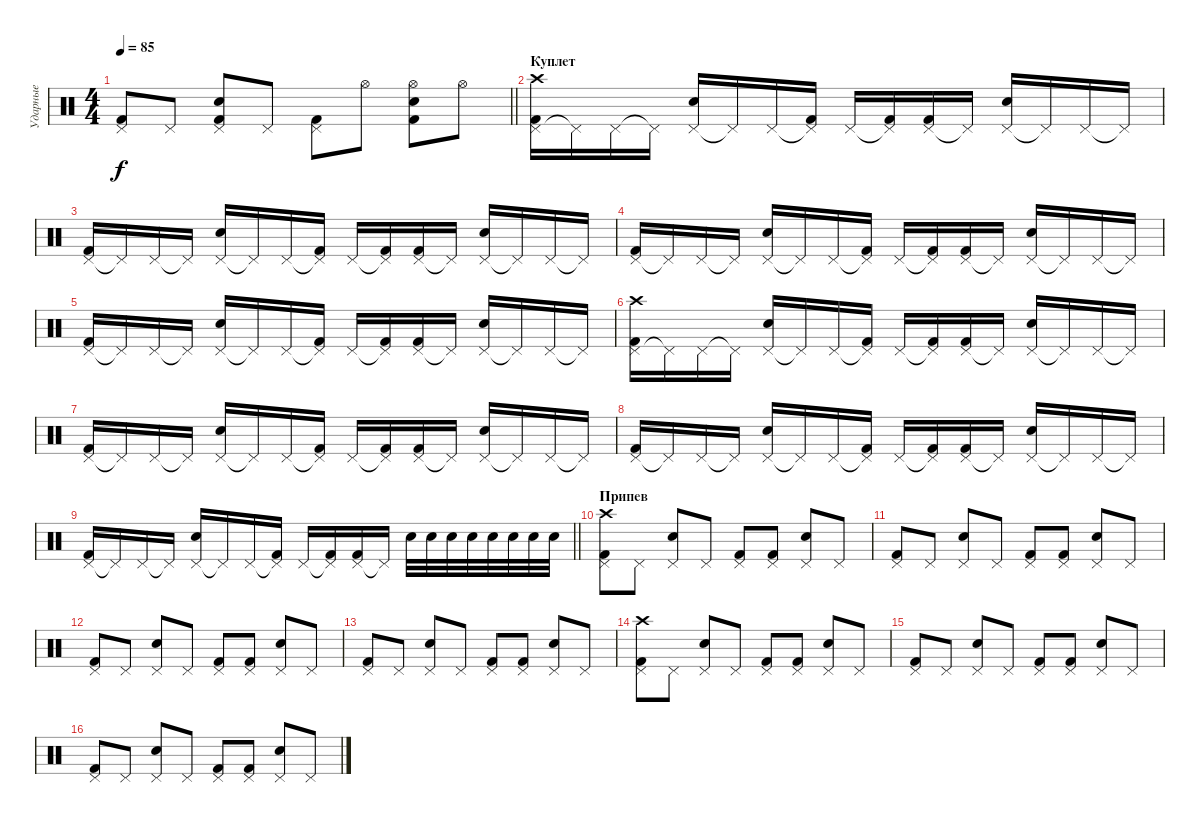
\track ("Ударные" "Ударные") {instrument percussion}
\staff {score}
\articulation defaults
\ts (4 4)
\tempo 85
\clef neutral
\barLineRight lightlight
\ks c
("Pedal Hi-Hat (hit)" "Kick (hit) 2").8{dy f} "Pedal Hi-Hat (hit)".8 ("Pedal Hi-Hat (hit)" "Electric Snare (hit)" "Kick (hit) 2").8 "Pedal Hi-Hat (hit)".8 ("Pedal Hi-Hat (hit)" "Kick (hit) 2").8 "Hi-Hat (open)".8 ("Hi-Hat (open)" "Electric Snare (hit)" "Kick (hit) 2").8 "Hi-Hat (open)".8 |
\section ("" "Куплет")
("Pedal Hi-Hat (hit)" "Crash high (hit)" "Kick (hit) 2").16 "Pedal Hi-Hat (hit)"{t}.16 "Pedal Hi-Hat (hit)".16 "Pedal Hi-Hat (hit)"{t}.16 ("Pedal Hi-Hat (hit)" "Electric Snare (hit)").16 "Pedal Hi-Hat (hit)"{t}.16 "Pedal Hi-Hat (hit)".16 ("Pedal Hi-Hat (hit)"{t} "Kick (hit) 2").16 "Pedal Hi-Hat (hit)".16 ("Pedal Hi-Hat (hit)"{t} "Kick (hit) 2").16 ("Pedal Hi-Hat (hit)" "Kick (hit) 2").16 "Pedal Hi-Hat (hit)"{t}.16 ("Pedal Hi-Hat (hit)" "Electric Snare (hit)").16 "Pedal Hi-Hat (hit)"{t}.16 "Pedal Hi-Hat (hit)".16 "Pedal Hi-Hat (hit)"{t}.16 |
("Pedal Hi-Hat (hit)" "Kick (hit) 2").16 "Pedal Hi-Hat (hit)"{t}.16 "Pedal Hi-Hat (hit)".16 "Pedal Hi-Hat (hit)"{t}.16 ("Pedal Hi-Hat (hit)" "Electric Snare (hit)").16 "Pedal Hi-Hat (hit)"{t}.16 "Pedal Hi-Hat (hit)".16 ("Pedal Hi-Hat (hit)"{t} "Kick (hit) 2").16 "Pedal Hi-Hat (hit)".16 ("Pedal Hi-Hat (hit)"{t} "Kick (hit) 2").16 ("Pedal Hi-Hat (hit)" "Kick (hit) 2").16 "Pedal Hi-Hat (hit)"{t}.16 ("Pedal Hi-Hat (hit)" "Electric Snare (hit)").16 "Pedal Hi-Hat (hit)"{t}.16 "Pedal Hi-Hat (hit)".16 "Pedal Hi-Hat (hit)"{t}.16 |
("Pedal Hi-Hat (hit)" "Kick (hit) 2").16 "Pedal Hi-Hat (hit)"{t}.16 "Pedal Hi-Hat (hit)".16 "Pedal Hi-Hat (hit)"{t}.16 ("Pedal Hi-Hat (hit)" "Electric Snare (hit)").16 "Pedal Hi-Hat (hit)"{t}.16 "Pedal Hi-Hat (hit)".16 ("Pedal Hi-Hat (hit)"{t} "Kick (hit) 2").16 "Pedal Hi-Hat (hit)".16 ("Pedal Hi-Hat (hit)"{t} "Kick (hit) 2").16 ("Pedal Hi-Hat (hit)" "Kick (hit) 2").16 "Pedal Hi-Hat (hit)"{t}.16 ("Pedal Hi-Hat (hit)" "Electric Snare (hit)").16 "Pedal Hi-Hat (hit)"{t}.16 "Pedal Hi-Hat (hit)".16 "Pedal Hi-Hat (hit)"{t}.16 |
("Pedal Hi-Hat (hit)" "Kick (hit) 2").16 "Pedal Hi-Hat (hit)"{t}.16 "Pedal Hi-Hat (hit)".16 "Pedal Hi-Hat (hit)"{t}.16 ("Pedal Hi-Hat (hit)" "Electric Snare (hit)").16 "Pedal Hi-Hat (hit)"{t}.16 "Pedal Hi-Hat (hit)".16 ("Pedal Hi-Hat (hit)"{t} "Kick (hit) 2").16 "Pedal Hi-Hat (hit)".16 ("Pedal Hi-Hat (hit)"{t} "Kick (hit) 2").16 ("Pedal Hi-Hat (hit)" "Kick (hit) 2").16 "Pedal Hi-Hat (hit)"{t}.16 ("Pedal Hi-Hat (hit)" "Electric Snare (hit)").16 "Pedal Hi-Hat (hit)"{t}.16 "Pedal Hi-Hat (hit)".16 "Pedal Hi-Hat (hit)"{t}.16 |
("Pedal Hi-Hat (hit)" "Crash high (hit)" "Kick (hit) 2").16 "Pedal Hi-Hat (hit)"{t}.16 "Pedal Hi-Hat (hit)".16 "Pedal Hi-Hat (hit)"{t}.16 ("Pedal Hi-Hat (hit)" "Electric Snare (hit)").16 "Pedal Hi-Hat (hit)"{t}.16 "Pedal Hi-Hat (hit)".16 ("Pedal Hi-Hat (hit)"{t} "Kick (hit) 2").16 "Pedal Hi-Hat (hit)".16 ("Pedal Hi-Hat (hit)"{t} "Kick (hit) 2").16 ("Pedal Hi-Hat (hit)" "Kick (hit) 2").16 "Pedal Hi-Hat (hit)"{t}.16 ("Pedal Hi-Hat (hit)" "Electric Snare (hit)").16 "Pedal Hi-Hat (hit)"{t}.16 "Pedal Hi-Hat (hit)".16 "Pedal Hi-Hat (hit)"{t}.16 |
("Pedal Hi-Hat (hit)" "Kick (hit) 2").16 "Pedal Hi-Hat (hit)"{t}.16 "Pedal Hi-Hat (hit)".16 "Pedal Hi-Hat (hit)"{t}.16 ("Pedal Hi-Hat (hit)" "Electric Snare (hit)").16 "Pedal Hi-Hat (hit)"{t}.16 "Pedal Hi-Hat (hit)".16 ("Pedal Hi-Hat (hit)"{t} "Kick (hit) 2").16 "Pedal Hi-Hat (hit)".16 ("Pedal Hi-Hat (hit)"{t} "Kick (hit) 2").16 ("Pedal Hi-Hat (hit)" "Kick (hit) 2").16 "Pedal Hi-Hat (hit)"{t}.16 ("Pedal Hi-Hat (hit)" "Electric Snare (hit)").16 "Pedal Hi-Hat (hit)"{t}.16 "Pedal Hi-Hat (hit)".16 "Pedal Hi-Hat (hit)"{t}.16 |
("Pedal Hi-Hat (hit)" "Kick (hit) 2").16 "Pedal Hi-Hat (hit)"{t}.16 "Pedal Hi-Hat (hit)".16 "Pedal Hi-Hat (hit)"{t}.16 ("Pedal Hi-Hat (hit)" "Electric Snare (hit)").16 "Pedal Hi-Hat (hit)"{t}.16 "Pedal Hi-Hat (hit)".16 ("Pedal Hi-Hat (hit)"{t} "Kick (hit) 2").16 "Pedal Hi-Hat (hit)".16 ("Pedal Hi-Hat (hit)"{t} "Kick (hit) 2").16 ("Pedal Hi-Hat (hit)" "Kick (hit) 2").16 "Pedal Hi-Hat (hit)"{t}.16 ("Pedal Hi-Hat (hit)" "Electric Snare (hit)").16 "Pedal Hi-Hat (hit)"{t}.16 "Pedal Hi-Hat (hit)".16 "Pedal Hi-Hat (hit)"{t}.16 |
\barLineRight lightlight
("Pedal Hi-Hat (hit)" "Kick (hit) 2").16 "Pedal Hi-Hat (hit)"{t}.16 "Pedal Hi-Hat (hit)".16 "Pedal Hi-Hat (hit)"{t}.16 ("Pedal Hi-Hat (hit)" "Electric Snare (hit)").16 "Pedal Hi-Hat (hit)"{t}.16 "Pedal Hi-Hat (hit)".16 ("Pedal Hi-Hat (hit)"{t} "Kick (hit) 2").16 "Pedal Hi-Hat (hit)".16 ("Pedal Hi-Hat (hit)"{t} "Kick (hit) 2").16 ("Pedal Hi-Hat (hit)" "Kick (hit) 2").16 "Pedal Hi-Hat (hit)"{t}.16 "Electric Snare (hit)".32 "Electric Snare (hit)".32 "Electric Snare (hit)".32 "Electric Snare (hit)".32 "Electric Snare (hit)".32 "Electric Snare (hit)".32 "Electric Snare (hit)".32 "Electric Snare (hit)".32 |
\section ("" "Припев")
("Pedal Hi-Hat (hit)" "Crash high (hit)" "Kick (hit) 2").8 "Pedal Hi-Hat (hit)".8 ("Pedal Hi-Hat (hit)" "Electric Snare (hit)").8 "Pedal Hi-Hat (hit)".8 ("Pedal Hi-Hat (hit)" "Kick (hit) 2").8 ("Pedal Hi-Hat (hit)" "Kick (hit) 2").8 ("Pedal Hi-Hat (hit)" "Electric Snare (hit)").8 "Pedal Hi-Hat (hit)".8 |
("Pedal Hi-Hat (hit)" "Kick (hit) 2").8 "Pedal Hi-Hat (hit)".8 ("Pedal Hi-Hat (hit)" "Electric Snare (hit)").8 "Pedal Hi-Hat (hit)".8 ("Pedal Hi-Hat (hit)" "Kick (hit) 2").8 ("Pedal Hi-Hat (hit)" "Kick (hit) 2").8 ("Pedal Hi-Hat (hit)" "Electric Snare (hit)").8 "Pedal Hi-Hat (hit)".8 |
("Pedal Hi-Hat (hit)" "Kick (hit) 2").8 "Pedal Hi-Hat (hit)".8 ("Pedal Hi-Hat (hit)" "Electric Snare (hit)").8 "Pedal Hi-Hat (hit)".8 ("Pedal Hi-Hat (hit)" "Kick (hit) 2").8 ("Pedal Hi-Hat (hit)" "Kick (hit) 2").8 ("Pedal Hi-Hat (hit)" "Electric Snare (hit)").8 "Pedal Hi-Hat (hit)".8 |
("Pedal Hi-Hat (hit)" "Kick (hit) 2").8 "Pedal Hi-Hat (hit)".8 ("Pedal Hi-Hat (hit)" "Electric Snare (hit)").8 "Pedal Hi-Hat (hit)".8 ("Pedal Hi-Hat (hit)" "Kick (hit) 2").8 ("Pedal Hi-Hat (hit)" "Kick (hit) 2").8 ("Pedal Hi-Hat (hit)" "Electric Snare (hit)").8 "Pedal Hi-Hat (hit)".8 |
("Pedal Hi-Hat (hit)" "Crash high (hit)" "Kick (hit) 2").8 "Pedal Hi-Hat (hit)".8 ("Pedal Hi-Hat (hit)" "Electric Snare (hit)").8 "Pedal Hi-Hat (hit)".8 ("Pedal Hi-Hat (hit)" "Kick (hit) 2").8 ("Pedal Hi-Hat (hit)" "Kick (hit) 2").8 ("Pedal Hi-Hat (hit)" "Electric Snare (hit)").8 "Pedal Hi-Hat (hit)".8 |
("Pedal Hi-Hat (hit)" "Kick (hit) 2").8 "Pedal Hi-Hat (hit)".8 ("Pedal Hi-Hat (hit)" "Electric Snare (hit)").8 "Pedal Hi-Hat (hit)".8 ("Pedal Hi-Hat (hit)" "Kick (hit) 2").8 ("Pedal Hi-Hat (hit)" "Kick (hit) 2").8 ("Pedal Hi-Hat (hit)" "Electric Snare (hit)").8 "Pedal Hi-Hat (hit)".8 |
("Pedal Hi-Hat (hit)" "Kick (hit) 2").8 "Pedal Hi-Hat (hit)".8 ("Pedal Hi-Hat (hit)" "Electric Snare (hit)").8 "Pedal Hi-Hat (hit)".8 ("Pedal Hi-Hat (hit)" "Kick (hit) 2").8 ("Pedal Hi-Hat (hit)" "Kick (hit) 2").8 ("Pedal Hi-Hat (hit)" "Electric Snare (hit)").8 "Pedal Hi-Hat (hit)".8
